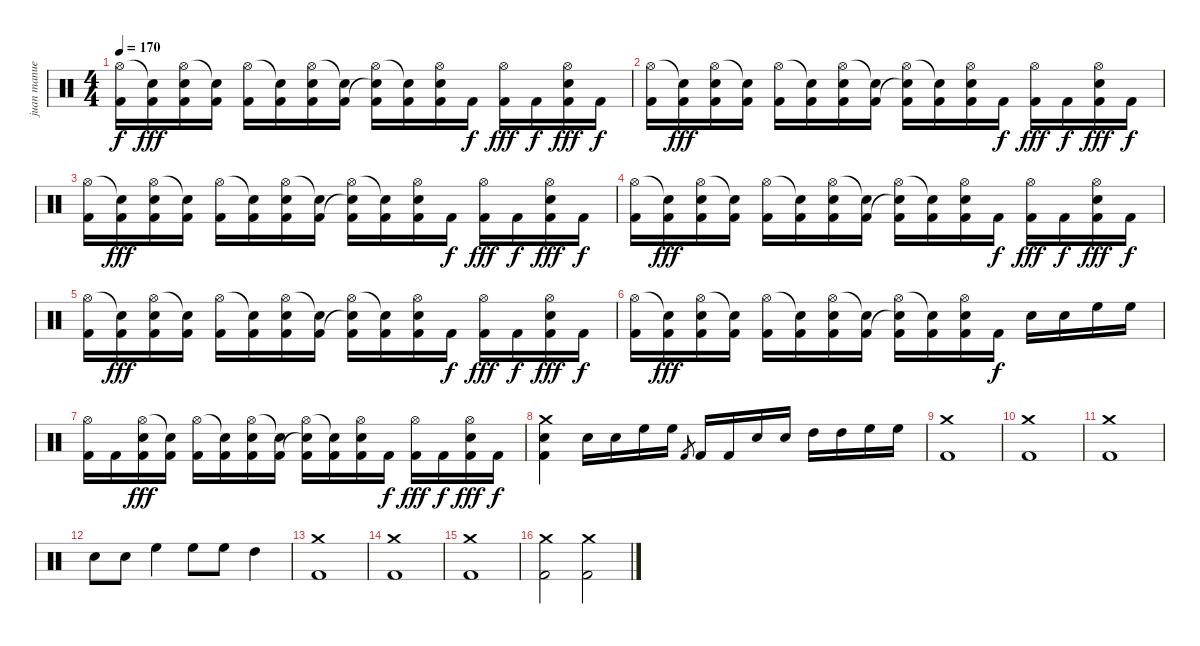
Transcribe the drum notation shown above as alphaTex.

\track ("juan manuel" "juan manue") {instrument percussion}
\staff {score}
\articulation defaults
\ts (4 4)
\tempo 170
\clef neutral
\ks c
("Hi-Hat (open)" "Kick (hit) 2").16{dy f} ("Snare (hit)"{t} "Kick (hit) 2").16{dy fff} ("Hi-Hat (open)" "Snare (hit) 2" "Kick (hit) 2").16 ("Snare (hit)"{t} "Kick (hit) 2").16 ("Hi-Hat (open)" "Kick (hit) 2").16 ("Snare (hit)"{t} "Kick (hit) 2").16 ("Hi-Hat (open)" "Snare (hit) 2" "Kick (hit) 2").16 ("Snare (hit)"{t} "Kick (hit) 2").16 ("Hi-Hat (open)" "Snare (hit)"{t} "Kick (hit) 2").16 ("Snare (hit)"{t} "Kick (hit) 2").16 ("Hi-Hat (open)" "Snare (hit) 2" "Kick (hit) 2").16 "Kick (hit) 2".16{dy f} ("Hi-Hat (open)" "Kick (hit) 2").16{dy fff} "Kick (hit) 2".16{dy f} ("Hi-Hat (open)" "Snare (hit) 2" "Kick (hit) 2").16{dy fff} "Kick (hit) 2".16{dy f} |
("Hi-Hat (open)" "Kick (hit) 2").16 ("Snare (hit)"{t} "Kick (hit) 2").16{dy fff} ("Hi-Hat (open)" "Snare (hit) 2" "Kick (hit) 2").16 ("Snare (hit)"{t} "Kick (hit) 2").16 ("Hi-Hat (open)" "Kick (hit) 2").16 ("Snare (hit)"{t} "Kick (hit) 2").16 ("Hi-Hat (open)" "Snare (hit) 2" "Kick (hit) 2").16 ("Snare (hit)"{t} "Kick (hit) 2").16 ("Hi-Hat (open)" "Snare (hit)"{t} "Kick (hit) 2").16 ("Snare (hit)"{t} "Kick (hit) 2").16 ("Hi-Hat (open)" "Snare (hit) 2" "Kick (hit) 2").16 "Kick (hit) 2".16{dy f} ("Hi-Hat (open)" "Kick (hit) 2").16{dy fff} "Kick (hit) 2".16{dy f} ("Hi-Hat (open)" "Snare (hit) 2" "Kick (hit) 2").16{dy fff} "Kick (hit) 2".16{dy f} |
("Hi-Hat (open)" "Kick (hit) 2").16 ("Snare (hit)"{t} "Kick (hit) 2").16{dy fff} ("Hi-Hat (open)" "Snare (hit) 2" "Kick (hit) 2").16 ("Snare (hit)"{t} "Kick (hit) 2").16 ("Hi-Hat (open)" "Kick (hit) 2").16 ("Snare (hit)"{t} "Kick (hit) 2").16 ("Hi-Hat (open)" "Snare (hit) 2" "Kick (hit) 2").16 ("Snare (hit)"{t} "Kick (hit) 2").16 ("Hi-Hat (open)" "Snare (hit)"{t} "Kick (hit) 2").16 ("Snare (hit)"{t} "Kick (hit) 2").16 ("Hi-Hat (open)" "Snare (hit) 2" "Kick (hit) 2").16 "Kick (hit) 2".16{dy f} ("Hi-Hat (open)" "Kick (hit) 2").16{dy fff} "Kick (hit) 2".16{dy f} ("Hi-Hat (open)" "Snare (hit) 2" "Kick (hit) 2").16{dy fff} "Kick (hit) 2".16{dy f} |
("Hi-Hat (open)" "Kick (hit) 2").16 ("Snare (hit)"{t} "Kick (hit) 2").16{dy fff} ("Hi-Hat (open)" "Snare (hit) 2" "Kick (hit) 2").16 ("Snare (hit)"{t} "Kick (hit) 2").16 ("Hi-Hat (open)" "Kick (hit) 2").16 ("Snare (hit)"{t} "Kick (hit) 2").16 ("Hi-Hat (open)" "Snare (hit) 2" "Kick (hit) 2").16 ("Snare (hit)"{t} "Kick (hit) 2").16 ("Hi-Hat (open)" "Snare (hit)"{t} "Kick (hit) 2").16 ("Snare (hit)"{t} "Kick (hit) 2").16 ("Hi-Hat (open)" "Snare (hit) 2" "Kick (hit) 2").16 "Kick (hit) 2".16{dy f} ("Hi-Hat (open)" "Kick (hit) 2").16{dy fff} "Kick (hit) 2".16{dy f} ("Hi-Hat (open)" "Snare (hit) 2" "Kick (hit) 2").16{dy fff} "Kick (hit) 2".16{dy f} |
("Hi-Hat (open)" "Kick (hit) 2").16 ("Snare (hit)"{t} "Kick (hit) 2").16{dy fff} ("Hi-Hat (open)" "Snare (hit) 2" "Kick (hit) 2").16 ("Snare (hit)"{t} "Kick (hit) 2").16 ("Hi-Hat (open)" "Kick (hit) 2").16 ("Snare (hit)"{t} "Kick (hit) 2").16 ("Hi-Hat (open)" "Snare (hit) 2" "Kick (hit) 2").16 ("Snare (hit)"{t} "Kick (hit) 2").16 ("Hi-Hat (open)" "Snare (hit)"{t} "Kick (hit) 2").16 ("Snare (hit)"{t} "Kick (hit) 2").16 ("Hi-Hat (open)" "Snare (hit) 2" "Kick (hit) 2").16 "Kick (hit) 2".16{dy f} ("Hi-Hat (open)" "Kick (hit) 2").16{dy fff} "Kick (hit) 2".16{dy f} ("Hi-Hat (open)" "Snare (hit) 2" "Kick (hit) 2").16{dy fff} "Kick (hit) 2".16{dy f} |
("Hi-Hat (open)" "Kick (hit) 2").16 ("Snare (hit)"{t} "Kick (hit) 2").16{dy fff} ("Hi-Hat (open)" "Snare (hit) 2" "Kick (hit) 2").16 ("Snare (hit)"{t} "Kick (hit) 2").16 ("Hi-Hat (open)" "Kick (hit) 2").16 ("Snare (hit)"{t} "Kick (hit) 2").16 ("Hi-Hat (open)" "Snare (hit) 2" "Kick (hit) 2").16 ("Snare (hit)"{t} "Kick (hit) 2").16 ("Hi-Hat (open)" "Snare (hit)"{t} "Kick (hit) 2").16 ("Snare (hit)"{t} "Kick (hit) 2").16 ("Hi-Hat (open)" "Snare (hit) 2" "Kick (hit) 2").16 "Kick (hit) 2".16{dy f} "Electric Snare (hit)".16 "Electric Snare (hit)".16 "High Floor Tom (hit)".16 "High Floor Tom (hit)".16 |
("Hi-Hat (open)" "Kick (hit) 2").16 "Kick (hit) 2".16 ("Hi-Hat (open)" "Snare (hit) 2" "Kick (hit) 2").16{dy fff} ("Snare (hit)"{t} "Kick (hit) 2").16 ("Hi-Hat (open)" "Kick (hit) 2").16 ("Snare (hit)"{t} "Kick (hit) 2").16 ("Hi-Hat (open)" "Snare (hit) 2" "Kick (hit) 2").16 ("Snare (hit)"{t} "Kick (hit) 2").16 ("Hi-Hat (open)" "Snare (hit)"{t} "Kick (hit) 2").16 ("Snare (hit)"{t} "Kick (hit) 2").16 ("Hi-Hat (open)" "Snare (hit) 2" "Kick (hit) 2").16 "Kick (hit) 2".16{dy f} ("Hi-Hat (open)" "Kick (hit) 2").16{dy fff} "Kick (hit) 2".16{dy f} ("Hi-Hat (open)" "Snare (hit) 2" "Kick (hit) 2").16{dy fff} "Kick (hit) 2".16{dy f} |
("Crash medium (hit)" "Kick (hit) 2" "Snare (hit) 2").4 "Electric Snare (hit)".16 "Electric Snare (hit)".16 "High Floor Tom (hit)".16 "High Floor Tom (hit)".16 "Kick (hit) 2".8{gr} "Kick (hit) 2".16 "Kick (hit) 2".16 "Electric Snare (hit)".16 "Electric Snare (hit)".16 "High Tom (hit)".16 "High Tom (hit)".16 "High Floor Tom (hit)".16 "High Floor Tom (hit)".16 |
("Crash medium (hit)" "Kick (hit) 2").1 |
("Crash medium (hit)" "Kick (hit) 2").1 |
("Crash medium (hit)" "Kick (hit) 2").1 |
"Electric Snare (hit)".8 "Electric Snare (hit)".8 "High Floor Tom (hit)".4 "High Floor Tom (hit)".8 "High Floor Tom (hit)".8 "High Tom (hit)".4 |
("Crash medium (hit)" "Kick (hit) 2").1 |
("Crash medium (hit)" "Kick (hit) 2").1 |
("Crash medium (hit)" "Kick (hit) 2").1 |
("Crash medium (hit)" "Kick (hit) 2").2 ("Crash medium (hit)" "Kick (hit) 2").2
